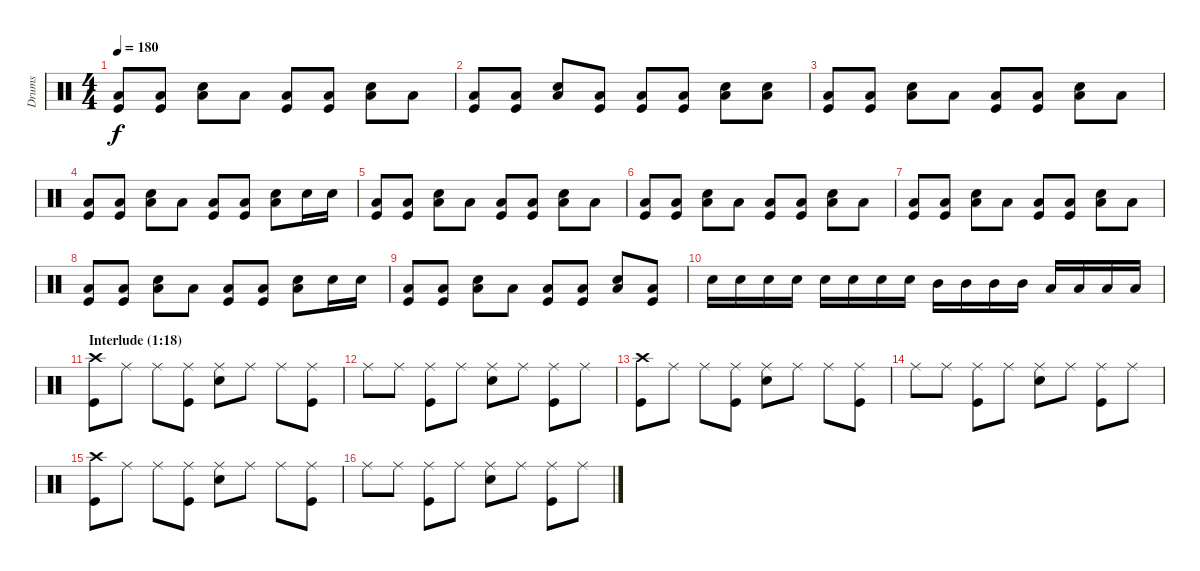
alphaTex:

\track ("Drums" "Drums") {instrument percussion}
\staff {score}
\articulation defaults
\ts (4 4)
\tempo 180
\clef neutral
\ks c
("Low Floor Tom (hit)" "Kick (hit)").8{dy f} ("Low Floor Tom (hit)" "Kick (hit)").8 ("Snare (hit) 2" "Low Floor Tom (hit)").8 "Low Floor Tom (hit)".8 ("Low Floor Tom (hit)" "Kick (hit)").8 ("Low Floor Tom (hit)" "Kick (hit)").8 ("Snare (hit) 2" "Low Floor Tom (hit)").8 "Low Floor Tom (hit)".8 |
("Low Floor Tom (hit)" "Kick (hit)").8 ("Low Floor Tom (hit)" "Kick (hit)").8 ("Snare (hit) 2" "Low Floor Tom (hit)").8 ("Low Floor Tom (hit)" "Kick (hit)").8 ("Low Floor Tom (hit)" "Kick (hit)").8 ("Low Floor Tom (hit)" "Kick (hit)").8 ("Snare (hit) 2" "Low Floor Tom (hit)").8 ("Snare (hit) 2" "Low Floor Tom (hit)").8 |
("Low Floor Tom (hit)" "Kick (hit)").8 ("Low Floor Tom (hit)" "Kick (hit)").8 ("Snare (hit) 2" "Low Floor Tom (hit)").8 "Low Floor Tom (hit)".8 ("Low Floor Tom (hit)" "Kick (hit)").8 ("Low Floor Tom (hit)" "Kick (hit)").8 ("Snare (hit) 2" "Low Floor Tom (hit)").8 "Low Floor Tom (hit)".8 |
("Low Floor Tom (hit)" "Kick (hit)").8 ("Low Floor Tom (hit)" "Kick (hit)").8 ("Snare (hit) 2" "Low Floor Tom (hit)").8 "Low Floor Tom (hit)".8 ("Low Floor Tom (hit)" "Kick (hit)").8 ("Low Floor Tom (hit)" "Kick (hit)").8 ("Snare (hit) 2" "Low Floor Tom (hit)").8 "Snare (hit) 2".16 "Snare (hit) 2".16 |
("Low Floor Tom (hit)" "Kick (hit)").8 ("Low Floor Tom (hit)" "Kick (hit)").8 ("Snare (hit) 2" "Low Floor Tom (hit)").8 "Low Floor Tom (hit)".8 ("Low Floor Tom (hit)" "Kick (hit)").8 ("Low Floor Tom (hit)" "Kick (hit)").8 ("Snare (hit) 2" "Low Floor Tom (hit)").8 "Low Floor Tom (hit)".8 |
("Low Floor Tom (hit)" "Kick (hit)").8 ("Low Floor Tom (hit)" "Kick (hit)").8 ("Snare (hit) 2" "Low Floor Tom (hit)").8 "Low Floor Tom (hit)".8 ("Low Floor Tom (hit)" "Kick (hit)").8 ("Low Floor Tom (hit)" "Kick (hit)").8 ("Snare (hit) 2" "Low Floor Tom (hit)").8 "Low Floor Tom (hit)".8 |
("Low Floor Tom (hit)" "Kick (hit)").8 ("Low Floor Tom (hit)" "Kick (hit)").8 ("Snare (hit) 2" "Low Floor Tom (hit)").8 "Low Floor Tom (hit)".8 ("Low Floor Tom (hit)" "Kick (hit)").8 ("Low Floor Tom (hit)" "Kick (hit)").8 ("Snare (hit) 2" "Low Floor Tom (hit)").8 "Low Floor Tom (hit)".8 |
("Low Floor Tom (hit)" "Kick (hit)").8 ("Low Floor Tom (hit)" "Kick (hit)").8 ("Snare (hit) 2" "Low Floor Tom (hit)").8 "Low Floor Tom (hit)".8 ("Low Floor Tom (hit)" "Kick (hit)").8 ("Low Floor Tom (hit)" "Kick (hit)").8 ("Snare (hit) 2" "Low Floor Tom (hit)").8 "Snare (hit) 2".16 "Snare (hit) 2".16 |
("Low Floor Tom (hit)" "Kick (hit)").8 ("Low Floor Tom (hit)" "Kick (hit)").8 ("Snare (hit) 2" "Low Floor Tom (hit)").8 "Low Floor Tom (hit)".8 ("Low Floor Tom (hit)" "Kick (hit)").8 ("Low Floor Tom (hit)" "Kick (hit)").8 ("Snare (hit) 2" "Low Floor Tom (hit)").8 ("Low Floor Tom (hit)" "Kick (hit)").8 |
"Snare (hit) 2".16 "Snare (hit) 2".16 "Snare (hit) 2".16 "Snare (hit) 2".16 "Snare (hit) 2".16 "Snare (hit) 2".16 "Snare (hit) 2".16 "Snare (hit) 2".16 "Mid Tom (hit)".16 "Mid Tom (hit)".16 "Mid Tom (hit)".16 "Mid Tom (hit)".16 "Low Tom (hit)".16 "Low Tom (hit)".16 "Low Tom (hit)".16 "Low Tom (hit)".16 |
\section ("" "Interlude (1:18)")
("Crash high (hit)" "Kick (hit)").8 "Ride (middle)".8 "Ride (middle)".8 ("Ride (middle)" "Kick (hit)").8 ("Ride (middle)" "Snare (hit) 2").8 "Ride (middle)".8 "Ride (middle)".8 ("Ride (middle)" "Kick (hit)").8 |
"Ride (middle)".8 "Ride (middle)".8 ("Ride (middle)" "Kick (hit)").8 "Ride (middle)".8 ("Ride (middle)" "Snare (hit) 2").8 "Ride (middle)".8 ("Ride (middle)" "Kick (hit)").8 "Ride (middle)".8 |
("Crash high (hit)" "Kick (hit)").8 "Ride (middle)".8 "Ride (middle)".8 ("Ride (middle)" "Kick (hit)").8 ("Ride (middle)" "Snare (hit) 2").8 "Ride (middle)".8 "Ride (middle)".8 ("Ride (middle)" "Kick (hit)").8 |
"Ride (middle)".8 "Ride (middle)".8 ("Ride (middle)" "Kick (hit)").8 "Ride (middle)".8 ("Ride (middle)" "Snare (hit) 2").8 "Ride (middle)".8 ("Ride (middle)" "Kick (hit)").8 "Ride (middle)".8 |
("Crash high (hit)" "Kick (hit)").8 "Ride (middle)".8 "Ride (middle)".8 ("Ride (middle)" "Kick (hit)").8 ("Ride (middle)" "Snare (hit) 2").8 "Ride (middle)".8 "Ride (middle)".8 ("Ride (middle)" "Kick (hit)").8 |
"Ride (middle)".8 "Ride (middle)".8 ("Ride (middle)" "Kick (hit)").8 "Ride (middle)".8 ("Ride (middle)" "Snare (hit) 2").8 "Ride (middle)".8 ("Ride (middle)" "Kick (hit)").8 "Ride (middle)".8
